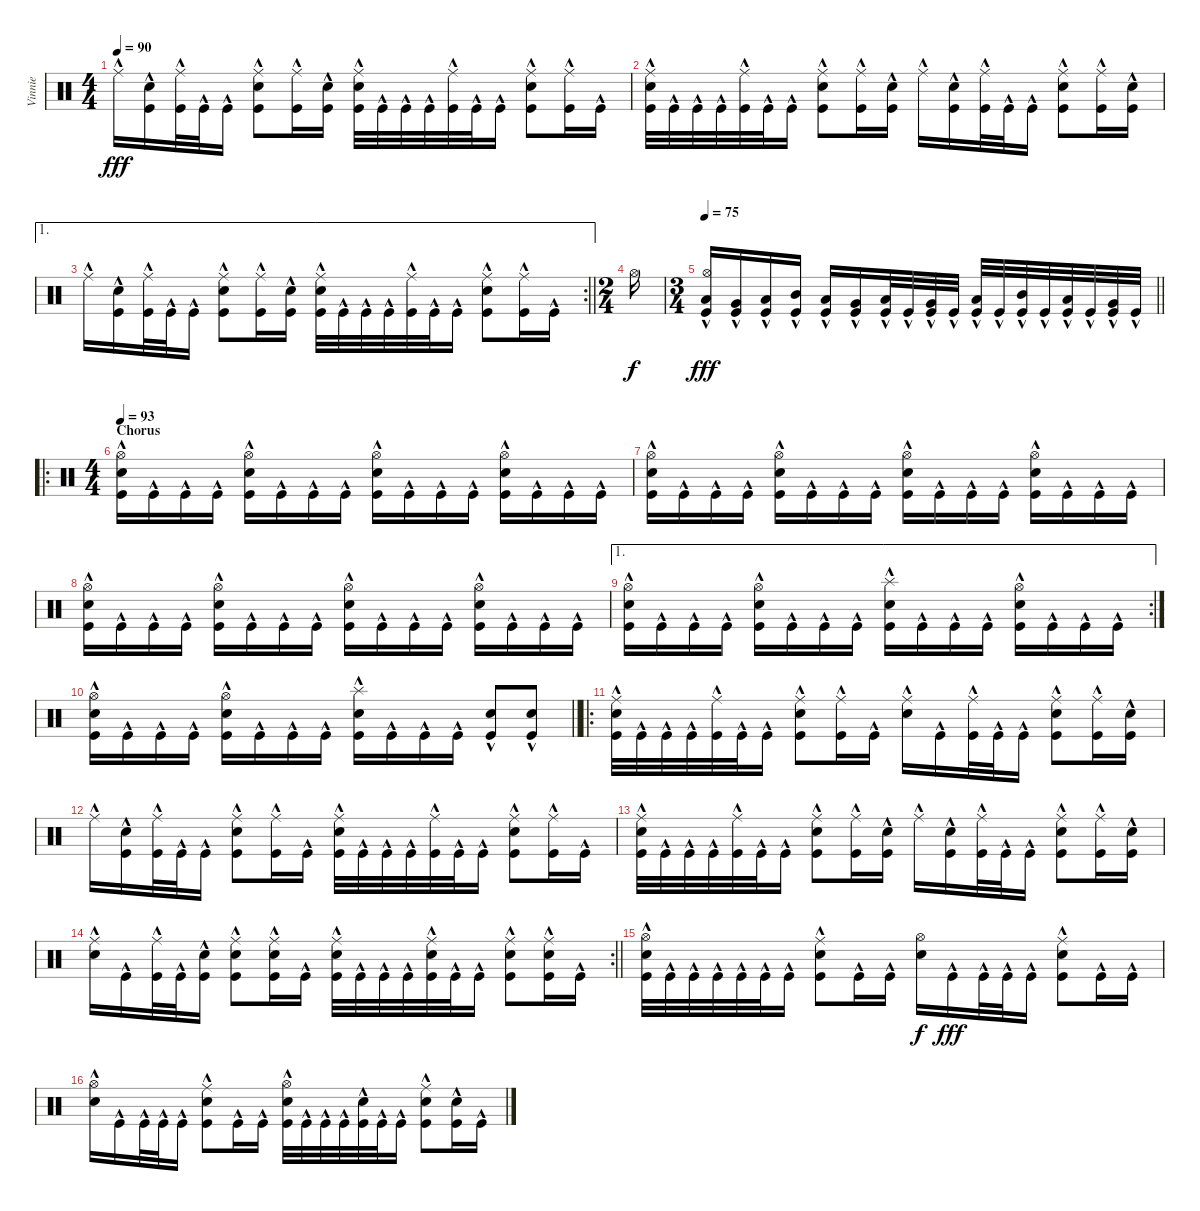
\track ("Vinnie" "Vinnie") {instrument percussion}
\staff {score}
\articulation defaults
\ts (4 4)
\tempo 90
\clef neutral
\ks c "Ride (middle)"{hac}.16{dy fff}
("Electric Snare (hit)" "Kick (hit)"{hac}).16 ("Ride (middle)"{hac} "Kick (hit)"{hac}).32 "Kick (hit)"{hac}.32 "Kick (hit)"{hac}.16 ("Ride (middle)"{hac} "Electric Snare (hit)" "Kick (hit)"{hac}).8 ("Ride (middle)"{hac} "Kick (hit)"{hac}).16 ("Electric Snare (hit)" "Kick (hit)"{hac}).16 ("Ride (middle)"{hac} "Electric Snare (hit)" "Kick (hit)"{hac}).32 "Kick (hit)"{hac}.32 "Kick (hit)"{hac}.32 "Kick (hit)"{hac}.32 ("Ride (middle)"{hac} "Kick (hit)"{hac}).32 "Kick (hit)"{hac}.32 "Kick (hit)"{hac}.16 ("Ride (middle)"{hac} "Electric Snare (hit)" "Kick (hit)"{hac}).8 ("Ride (middle)"{hac} "Kick (hit)"{hac}).16 "Kick (hit)"{hac}.16 |
("Ride (middle)"{hac} "Electric Snare (hit)" "Kick (hit)"{hac}).32 "Kick (hit)"{hac}.32 "Kick (hit)"{hac}.32 "Kick (hit)"{hac}.32 ("Ride (middle)"{hac} "Kick (hit)"{hac}).32 "Kick (hit)"{hac}.32 "Kick (hit)"{hac}.16 ("Ride (middle)"{hac} "Electric Snare (hit)" "Kick (hit)"{hac}).8 ("Ride (middle)"{hac} "Kick (hit)"{hac}).16 ("Electric Snare (hit)" "Kick (hit)"{hac}).16 "Ride (middle)"{hac}.16 ("Electric Snare (hit)" "Kick (hit)"{hac}).16 ("Ride (middle)"{hac} "Kick (hit)"{hac}).32 "Kick (hit)"{hac}.32 "Kick (hit)"{hac}.16 ("Ride (middle)"{hac} "Electric Snare (hit)" "Kick (hit)"{hac}).8 ("Ride (middle)"{hac} "Kick (hit)"{hac}).16 ("Electric Snare (hit)" "Kick (hit)"{hac}).16 |
\ae 1
\rc 2
\barLineRight lightlight "Ride (middle)"{hac}.16
("Electric Snare (hit)" "Kick (hit)"{hac}).16 ("Ride (middle)"{hac} "Kick (hit)"{hac}).32 "Kick (hit)"{hac}.32 "Kick (hit)"{hac}.16 ("Ride (middle)"{hac} "Electric Snare (hit)" "Kick (hit)"{hac}).8 ("Ride (middle)"{hac} "Kick (hit)"{hac}).16 ("Electric Snare (hit)" "Kick (hit)"{hac}).16 ("Ride (middle)"{hac} "Electric Snare (hit)" "Kick (hit)"{hac}).32 "Kick (hit)"{hac}.32 "Kick (hit)"{hac}.32 "Kick (hit)"{hac}.32 ("Ride (middle)"{hac} "Kick (hit)"{hac}).32 "Kick (hit)"{hac}.32 "Kick (hit)"{hac}.16 ("Ride (middle)"{hac} "Electric Snare (hit)" "Kick (hit)"{hac}).8 ("Ride (middle)"{hac} "Kick (hit)"{hac}).16 "Kick (hit)"{hac}.16 |
\ts (2 4)
"Hi-Hat (open)".16{dy f} |
\ts (3 4)
\tempo 75
\barLineRight lightlight
("Hi-Hat (open)" "Low Tom (hit)" "Kick (hit)"{hac}).16{dy fff} ("Very Low Tom (hit)" "Kick (hit)"{hac}).16 ("Low Floor Tom (hit)" "Kick (hit)"{hac}).16 ("Mid Tom (hit)" "Kick (hit)"{hac}).16 ("Low Tom (hit)" "Kick (hit)"{hac}).16 ("Very Low Tom (hit)" "Kick (hit)"{hac}).16 ("Low Tom (hit)" "Kick (hit)"{hac}).32 "Kick (hit)"{hac}.32 ("Very Low Tom (hit)" "Kick (hit)"{hac}).32 "Kick (hit)"{hac}.32 ("Low Floor Tom (hit)" "Kick (hit)"{hac}).32 "Kick (hit)"{hac}.32 ("Mid Tom (hit)" "Kick (hit)"{hac}).32 "Kick (hit)"{hac}.32 ("Low Tom (hit)" "Kick (hit)"{hac}).32 "Kick (hit)"{hac}.32 ("Very Low Tom (hit)" "Kick (hit)"{hac}).32 "Kick (hit)"{hac}.32 |
\ro
\ts (4 4)
\section ("" "Chorus")
\tempo 93
("Hi-Hat (open)"{hac} "Electric Snare (hit)" "Kick (hit)"{hac}).16 "Kick (hit)"{hac}.16 "Kick (hit)"{hac}.16 "Kick (hit)"{hac}.16 ("Hi-Hat (open)" "Electric Snare (hit)" "Kick (hit)"{hac}).16 "Kick (hit)"{hac}.16 "Kick (hit)"{hac}.16 "Kick (hit)"{hac}.16 ("Hi-Hat (open)" "Electric Snare (hit)" "Kick (hit)"{hac}).16 "Kick (hit)"{hac}.16 "Kick (hit)"{hac}.16 "Kick (hit)"{hac}.16 ("Hi-Hat (open)" "Electric Snare (hit)" "Kick (hit)"{hac}).16 "Kick (hit)"{hac}.16 "Kick (hit)"{hac}.16 "Kick (hit)"{hac}.16 |
("Hi-Hat (open)"{hac} "Electric Snare (hit)" "Kick (hit)"{hac}).16 "Kick (hit)"{hac}.16 "Kick (hit)"{hac}.16 "Kick (hit)"{hac}.16 ("Hi-Hat (open)" "Electric Snare (hit)" "Kick (hit)"{hac}).16 "Kick (hit)"{hac}.16 "Kick (hit)"{hac}.16 "Kick (hit)"{hac}.16 ("Hi-Hat (open)" "Electric Snare (hit)" "Kick (hit)"{hac}).16 "Kick (hit)"{hac}.16 "Kick (hit)"{hac}.16 "Kick (hit)"{hac}.16 ("Hi-Hat (open)" "Electric Snare (hit)" "Kick (hit)"{hac}).16 "Kick (hit)"{hac}.16 "Kick (hit)"{hac}.16 "Kick (hit)"{hac}.16 |
("Hi-Hat (open)"{hac} "Electric Snare (hit)" "Kick (hit)"{hac}).16 "Kick (hit)"{hac}.16 "Kick (hit)"{hac}.16 "Kick (hit)"{hac}.16 ("Hi-Hat (open)" "Electric Snare (hit)" "Kick (hit)"{hac}).16 "Kick (hit)"{hac}.16 "Kick (hit)"{hac}.16 "Kick (hit)"{hac}.16 ("Hi-Hat (open)" "Electric Snare (hit)" "Kick (hit)"{hac}).16 "Kick (hit)"{hac}.16 "Kick (hit)"{hac}.16 "Kick (hit)"{hac}.16 ("Hi-Hat (open)" "Electric Snare (hit)" "Kick (hit)"{hac}).16 "Kick (hit)"{hac}.16 "Kick (hit)"{hac}.16 "Kick (hit)"{hac}.16 |
\ae 1
\rc 2
("Hi-Hat (open)"{hac} "Electric Snare (hit)" "Kick (hit)"{hac}).16 "Kick (hit)"{hac}.16 "Kick (hit)"{hac}.16 "Kick (hit)"{hac}.16 ("Hi-Hat (open)" "Electric Snare (hit)" "Kick (hit)"{hac}).16 "Kick (hit)"{hac}.16 "Kick (hit)"{hac}.16 "Kick (hit)"{hac}.16 ("Splash (hit)" "Electric Snare (hit)" "Kick (hit)"{hac}).16 "Kick (hit)"{hac}.16 "Kick (hit)"{hac}.16 "Kick (hit)"{hac}.16 ("Hi-Hat (open)" "Electric Snare (hit)" "Kick (hit)"{hac}).16 "Kick (hit)"{hac}.16 "Kick (hit)"{hac}.16 "Kick (hit)"{hac}.16 |
\barLineRight lightlight
("Hi-Hat (open)"{hac} "Electric Snare (hit)" "Kick (hit)"{hac}).16 "Kick (hit)"{hac}.16 "Kick (hit)"{hac}.16 "Kick (hit)"{hac}.16 ("Hi-Hat (open)" "Electric Snare (hit)" "Kick (hit)"{hac}).16 "Kick (hit)"{hac}.16 "Kick (hit)"{hac}.16 "Kick (hit)"{hac}.16 ("Splash (hit)" "Electric Snare (hit)" "Kick (hit)"{hac}).16 "Kick (hit)"{hac}.16 "Kick (hit)"{hac}.16 "Kick (hit)"{hac}.16 ("Electric Snare (hit)"{hac} "Kick (hit)"{hac}).8 ("Electric Snare (hit)"{hac} "Kick (hit)"{hac}).8 |
\ro
("Ride (middle)"{hac} "Electric Snare (hit)" "Kick (hit)"{hac}).32 "Kick (hit)"{hac}.32 "Kick (hit)"{hac}.32 "Kick (hit)"{hac}.32 ("Ride (middle)"{hac} "Kick (hit)"{hac}).32 "Kick (hit)"{hac}.32 "Kick (hit)"{hac}.16 ("Ride (middle)"{hac} "Electric Snare (hit)" "Kick (hit)"{hac}).8 ("Ride (middle)"{hac} "Kick (hit)"{hac}).16 "Kick (hit)"{hac}.16 ("Ride (middle)"{hac} "Electric Snare (hit)").16 "Kick (hit)"{hac}.16 ("Ride (middle)"{hac} "Kick (hit)"{hac}).32 "Kick (hit)"{hac}.32 "Kick (hit)"{hac}.16 ("Ride (middle)"{hac} "Electric Snare (hit)" "Kick (hit)"{hac}).8 ("Ride (middle)"{hac} "Kick (hit)"{hac}).16 ("Electric Snare (hit)" "Kick (hit)"{hac}).16 |
"Ride (middle)"{hac}.16 ("Electric Snare (hit)" "Kick (hit)"{hac}).16 ("Ride (middle)"{hac} "Kick (hit)"{hac}).32 "Kick (hit)"{hac}.32 "Kick (hit)"{hac}.16 ("Ride (middle)"{hac} "Electric Snare (hit)" "Kick (hit)"{hac}).8 ("Ride (middle)"{hac} "Kick (hit)"{hac}).16 "Kick (hit)"{hac}.16 ("Ride (middle)"{hac} "Electric Snare (hit)" "Kick (hit)"{hac}).32 "Kick (hit)"{hac}.32 "Kick (hit)"{hac}.32 "Kick (hit)"{hac}.32 ("Ride (middle)"{hac} "Kick (hit)"{hac}).32 "Kick (hit)"{hac}.32 "Kick (hit)"{hac}.16 ("Ride (middle)"{hac} "Electric Snare (hit)" "Kick (hit)"{hac}).8 ("Ride (middle)"{hac} "Kick (hit)"{hac}).16 "Kick (hit)"{hac}.16 |
("Ride (middle)"{hac} "Electric Snare (hit)" "Kick (hit)"{hac}).32 "Kick (hit)"{hac}.32 "Kick (hit)"{hac}.32 "Kick (hit)"{hac}.32 ("Ride (middle)"{hac} "Kick (hit)"{hac}).32 "Kick (hit)"{hac}.32 "Kick (hit)"{hac}.16 ("Ride (middle)"{hac} "Electric Snare (hit)" "Kick (hit)"{hac}).8 ("Ride (middle)"{hac} "Kick (hit)"{hac}).16 ("Electric Snare (hit)" "Kick (hit)"{hac}).16 "Ride (middle)"{hac}.16 ("Electric Snare (hit)" "Kick (hit)"{hac}).16 ("Ride (middle)"{hac} "Kick (hit)"{hac}).32 "Kick (hit)"{hac}.32 "Kick (hit)"{hac}.16 ("Ride (middle)"{hac} "Electric Snare (hit)" "Kick (hit)"{hac}).8 ("Ride (middle)"{hac} "Kick (hit)"{hac}).16 ("Electric Snare (hit)" "Kick (hit)"{hac}).16 |
\rc 2
\barLineRight lightlight
("Ride (middle)"{hac} "Electric Snare (hit)").16 "Kick (hit)"{hac}.16 ("Ride (middle)"{hac} "Kick (hit)"{hac}).32 "Kick (hit)"{hac}.32 ("Electric Snare (hit)" "Kick (hit)"{hac}).16 ("Ride (middle)"{hac} "Electric Snare (hit)" "Kick (hit)"{hac}).8 ("Ride (middle)"{hac} "Electric Snare (hit)" "Kick (hit)"{hac}).16 "Kick (hit)"{hac}.16 ("Ride (middle)"{hac} "Electric Snare (hit)" "Kick (hit)"{hac}).32 "Kick (hit)"{hac}.32 "Kick (hit)"{hac}.32 "Kick (hit)"{hac}.32 ("Ride (middle)"{hac} "Electric Snare (hit)" "Kick (hit)"{hac}).32 "Kick (hit)"{hac}.32 "Kick (hit)"{hac}.16 ("Ride (middle)"{hac} "Electric Snare (hit)" "Kick (hit)"{hac}).8 ("Ride (middle)"{hac} "Electric Snare (hit)" "Kick (hit)"{hac}).16 "Kick (hit)"{hac}.16 |
("Hi-Hat (open)"{hac} "Electric Snare (hit)" "Kick (hit)"{hac}).32 "Kick (hit)"{hac}.32 "Kick (hit)"{hac}.32 "Kick (hit)"{hac}.32 "Kick (hit)"{hac}.32 "Kick (hit)"{hac}.32 "Kick (hit)"{hac}.16 ("Ride (middle)"{hac} "Electric Snare (hit)" "Kick (hit)"{hac}).8 "Kick (hit)"{hac}.16 "Kick (hit)"{hac}.16 ("Hi-Hat (open)" "Electric Snare (hit)").16{dy f} "Kick (hit)"{hac}.16{dy fff} "Kick (hit)"{hac}.32 "Kick (hit)"{hac}.32 "Kick (hit)"{hac}.16 ("Ride (middle)" "Electric Snare (hit)" "Kick (hit)"{hac}).8 "Kick (hit)"{hac}.16 "Kick (hit)"{hac}.16 |
("Hi-Hat (open)"{hac} "Electric Snare (hit)").16 "Kick (hit)"{hac}.16 "Kick (hit)"{hac}.32 "Kick (hit)"{hac}.32 "Kick (hit)"{hac}.16 ("Ride (middle)"{hac} "Electric Snare (hit)" "Kick (hit)"{hac}).8 "Kick (hit)"{hac}.16 "Kick (hit)"{hac}.16 ("Hi-Hat (open)"{hac} "Electric Snare (hit)" "Kick (hit)"{hac}).32 "Kick (hit)"{hac}.32 "Kick (hit)"{hac}.32 "Kick (hit)"{hac}.32 ("Electric Snare (hit)" "Kick (hit)"{hac}).32 "Kick (hit)"{hac}.32 "Kick (hit)"{hac}.16 ("Ride (middle)"{hac} "Electric Snare (hit)" "Kick (hit)"{hac}).8 ("Electric Snare (hit)" "Kick (hit)"{hac}).16 "Kick (hit)"{hac}.16
